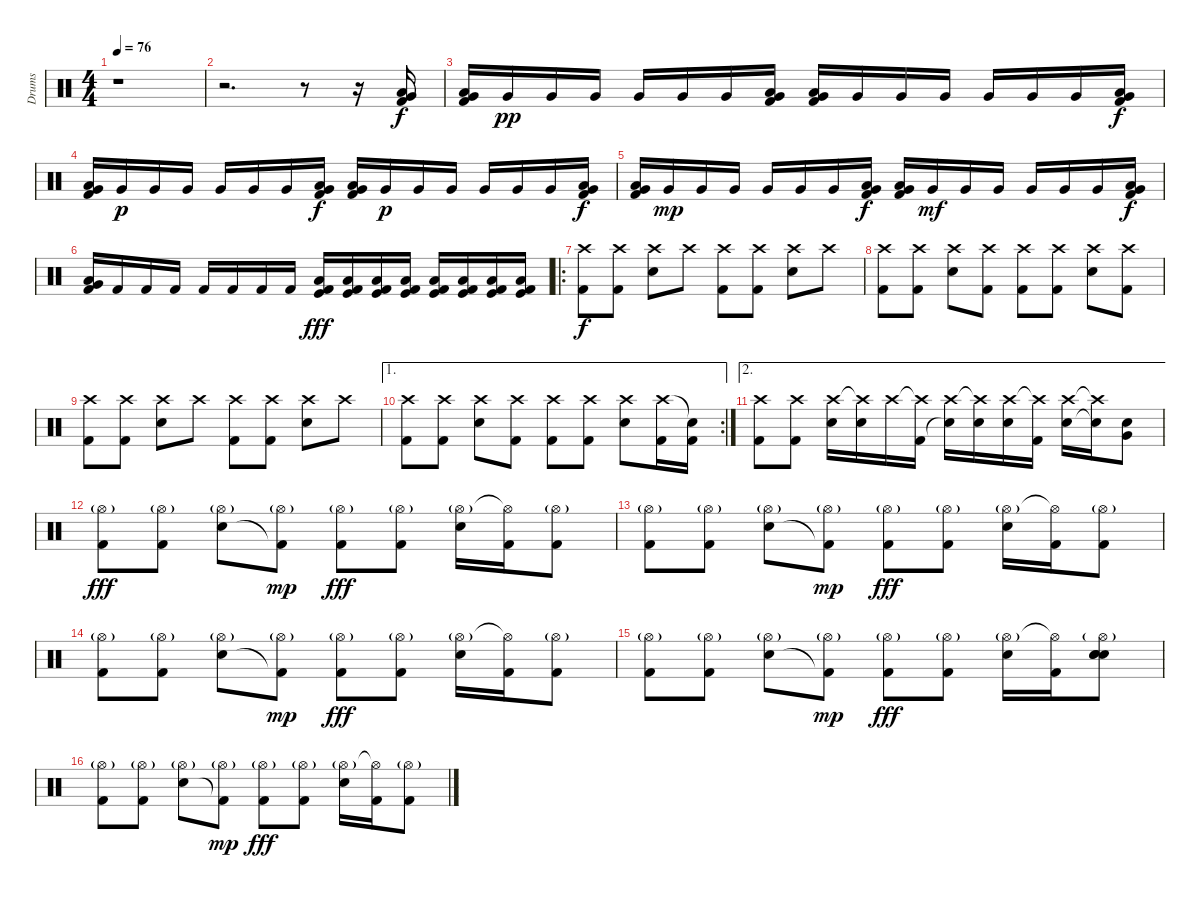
\track ("Drums" "Drums") {instrument percussion}
\staff {score}
\articulation defaults
\ts (4 4)
\tempo 76
\clef neutral
\ks c
r.1{dy f} |
r.2{d} r.8 r.16 ("Kick (hit) 2" "Low Tom (hit)" "Very Low Tom (hit)").16 |
("Kick (hit) 2" "Low Tom (hit)" "Very Low Tom (hit)").16 "Very Low Tom (hit)".16{dy pp} "Very Low Tom (hit)".16 "Very Low Tom (hit)".16 "Very Low Tom (hit)".16 "Very Low Tom (hit)".16 "Very Low Tom (hit)".16 ("Kick (hit) 2" "Low Tom (hit)" "Very Low Tom (hit)").16 ("Kick (hit) 2" "Low Tom (hit)" "Very Low Tom (hit)").16 "Very Low Tom (hit)".16 "Very Low Tom (hit)".16 "Very Low Tom (hit)".16 "Very Low Tom (hit)".16 "Very Low Tom (hit)".16 "Very Low Tom (hit)".16 ("Kick (hit) 2" "Low Tom (hit)" "Very Low Tom (hit)").16{dy f} |
("Kick (hit) 2" "Low Tom (hit)" "Very Low Tom (hit)").16 "Very Low Tom (hit)".16{dy p} "Very Low Tom (hit)".16 "Very Low Tom (hit)".16 "Very Low Tom (hit)".16 "Very Low Tom (hit)".16 "Very Low Tom (hit)".16 ("Kick (hit) 2" "Low Tom (hit)" "Very Low Tom (hit)").16{dy f} ("Kick (hit) 2" "Low Tom (hit)" "Very Low Tom (hit)").16 "Very Low Tom (hit)".16{dy p} "Very Low Tom (hit)".16 "Very Low Tom (hit)".16 "Very Low Tom (hit)".16 "Very Low Tom (hit)".16 "Very Low Tom (hit)".16 ("Kick (hit) 2" "Low Tom (hit)" "Very Low Tom (hit)").16{dy f} |
("Kick (hit) 2" "Low Tom (hit)" "Very Low Tom (hit)").16 "Very Low Tom (hit)".16{dy mp} "Very Low Tom (hit)".16 "Very Low Tom (hit)".16 "Very Low Tom (hit)".16 "Very Low Tom (hit)".16 "Very Low Tom (hit)".16 ("Kick (hit) 2" "Low Tom (hit)" "Very Low Tom (hit)").16{dy f} ("Kick (hit) 2" "Low Tom (hit)" "Very Low Tom (hit)").16 "Very Low Tom (hit)".16{dy mf} "Very Low Tom (hit)".16 "Very Low Tom (hit)".16 "Very Low Tom (hit)".16 "Very Low Tom (hit)".16 "Very Low Tom (hit)".16 ("Kick (hit) 2" "Low Tom (hit)" "Very Low Tom (hit)").16{dy f} |
("Kick (hit) 2" "Low Tom (hit)" "Very Low Tom (hit)").16 "Kick (hit) 2".16 "Kick (hit) 2".16 "Kick (hit) 2".16 "Kick (hit) 2".16 "Kick (hit) 2".16 "Kick (hit) 2".16 "Kick (hit) 2".16 ("Kick (hit)" "Low Floor Tom (hit)" "Kick (hit) 2").16{dy fff} ("Kick (hit)" "Low Floor Tom (hit)" "Kick (hit) 2").16 ("Kick (hit)" "Low Floor Tom (hit)" "Kick (hit) 2").16 ("Kick (hit)" "Low Floor Tom (hit)" "Kick (hit) 2").16 ("Kick (hit)" "Low Floor Tom (hit)" "Kick (hit) 2").16 ("Kick (hit)" "Low Floor Tom (hit)" "Kick (hit) 2").16 ("Kick (hit)" "Low Floor Tom (hit)" "Kick (hit) 2").16 ("Kick (hit)" "Low Floor Tom (hit)" "Kick (hit) 2").16 |
\ro
("Crash high (hit)" "Kick (hit) 2").8{dy f} ("Crash high (hit)" "Kick (hit) 2").8 ("Crash high (hit)" "Electric Snare (hit)").8 "Crash high (hit)".8 ("Crash high (hit)" "Kick (hit) 2").8 ("Crash high (hit)" "Kick (hit) 2").8 ("Crash high (hit)" "Electric Snare (hit)").8 "Crash high (hit)".8 |
("Crash high (hit)" "Kick (hit) 2").8 ("Crash high (hit)" "Kick (hit) 2").8 ("Crash high (hit)" "Electric Snare (hit)").8 ("Crash high (hit)" "Kick (hit) 2").8 ("Crash high (hit)" "Kick (hit) 2").8 ("Crash high (hit)" "Kick (hit) 2").8 ("Crash high (hit)" "Electric Snare (hit)").8 ("Crash high (hit)" "Kick (hit) 2").8 |
("Crash high (hit)" "Kick (hit) 2").8 ("Crash high (hit)" "Kick (hit) 2").8 ("Crash high (hit)" "Electric Snare (hit)").8 "Crash high (hit)".8 ("Crash high (hit)" "Kick (hit) 2").8 ("Crash high (hit)" "Kick (hit) 2").8 ("Crash high (hit)" "Electric Snare (hit)").8 "Crash high (hit)".8 |
\ae 1
\rc 2
("Crash high (hit)" "Kick (hit) 2").8 ("Crash high (hit)" "Kick (hit) 2").8 ("Crash high (hit)" "Electric Snare (hit)").8 ("Crash high (hit)" "Kick (hit) 2").8 ("Crash high (hit)" "Kick (hit) 2").8 ("Crash high (hit)" "Kick (hit) 2").8 ("Crash high (hit)" "Electric Snare (hit)").8 ("Crash high (hit)" "Kick (hit) 2").16 ("Snare (hit)"{t} "Kick (hit) 2").16 |
\ae 2
("Crash high (hit)" "Kick (hit) 2").8 ("Crash high (hit)" "Kick (hit) 2").8 ("Crash high (hit)" "Electric Snare (hit)").16 ("Crash high (hit)"{t} "Electric Snare (hit)").16 "Crash high (hit)".16 ("Crash high (hit)"{t} "Kick (hit) 2").16 ("Crash high (hit)" "Snare (hit)"{t}).16 ("Crash high (hit)"{t} "Electric Snare (hit)").16 ("Crash high (hit)" "Electric Snare (hit)").16 ("Crash high (hit)"{t} "Kick (hit) 2").16 ("Crash high (hit)" "Electric Snare (hit)").16 ("Crash high (hit)"{t} "Electric Snare (hit)"{t}).16 ("Very Low Tom (hit)" "Electric Snare (hit)").8 |
("Hi-Hat (open)"{g} "Kick (hit) 2").8{dy fff} ("Hi-Hat (open)"{g} "Kick (hit) 2").8 ("Hi-Hat (open)"{g} "Electric Snare (hit)").8 ("Hi-Hat (open)"{g} "Kick (hit) 2"{t}).8{dy mp} ("Hi-Hat (open)"{g} "Kick (hit) 2").8{dy fff} ("Hi-Hat (open)"{g} "Kick (hit) 2").8 ("Hi-Hat (open)"{g} "Electric Snare (hit)").16 ("Hi-Hat (open)"{t} "Kick (hit) 2").16 ("Hi-Hat (open)"{g} "Kick (hit) 2").8 |
("Hi-Hat (open)"{g} "Kick (hit) 2").8 ("Hi-Hat (open)"{g} "Kick (hit) 2").8 ("Hi-Hat (open)"{g} "Electric Snare (hit)").8 ("Hi-Hat (open)"{g} "Kick (hit) 2"{t}).8{dy mp} ("Hi-Hat (open)"{g} "Kick (hit) 2").8{dy fff} ("Hi-Hat (open)"{g} "Kick (hit) 2").8 ("Hi-Hat (open)"{g} "Electric Snare (hit)").16 ("Hi-Hat (open)"{t} "Kick (hit) 2").16 ("Hi-Hat (open)"{g} "Kick (hit) 2").8 |
("Hi-Hat (open)"{g} "Kick (hit) 2").8 ("Hi-Hat (open)"{g} "Kick (hit) 2").8 ("Hi-Hat (open)"{g} "Electric Snare (hit)").8 ("Hi-Hat (open)"{g} "Kick (hit) 2"{t}).8{dy mp} ("Hi-Hat (open)"{g} "Kick (hit) 2").8{dy fff} ("Hi-Hat (open)"{g} "Kick (hit) 2").8 ("Hi-Hat (open)"{g} "Electric Snare (hit)").16 ("Hi-Hat (open)"{t} "Kick (hit) 2").16 ("Hi-Hat (open)"{g} "Kick (hit) 2").8 |
("Hi-Hat (open)"{g} "Kick (hit) 2").8 ("Hi-Hat (open)"{g} "Kick (hit) 2").8 ("Hi-Hat (open)"{g} "Electric Snare (hit)").8 ("Hi-Hat (open)"{g} "Kick (hit) 2"{t}).8{dy mp} ("Hi-Hat (open)"{g} "Kick (hit) 2").8{dy fff} ("Hi-Hat (open)"{g} "Kick (hit) 2").8 ("Hi-Hat (open)"{g} "Electric Snare (hit)").16 ("Hi-Hat (open)"{t} "Kick (hit) 2").16 ("Hi-Hat (open)"{g} "Electric Snare (hit)" "Electric Snare (hit)" "Electric Snare (hit)").8 |
("Hi-Hat (open)"{g} "Kick (hit) 2").8 ("Hi-Hat (open)"{g} "Kick (hit) 2").8 ("Hi-Hat (open)"{g} "Electric Snare (hit)").8 ("Hi-Hat (open)"{g} "Kick (hit) 2"{t}).8{dy mp} ("Hi-Hat (open)"{g} "Kick (hit) 2").8{dy fff} ("Hi-Hat (open)"{g} "Kick (hit) 2").8 ("Hi-Hat (open)"{g} "Electric Snare (hit)").16 ("Hi-Hat (open)"{t} "Kick (hit) 2").16 ("Hi-Hat (open)"{g} "Kick (hit) 2").8
